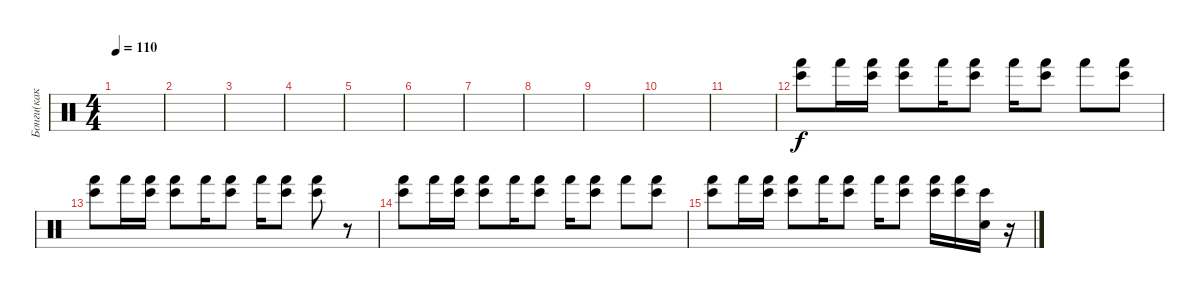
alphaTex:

\track ("Бонги(как вариант)" "Бонги(как ") {instrument percussion}
\staff {score}
\articulation defaults
\ts (4 4)
\tempo 110
\clef neutral
\ks c
|
|
|
|
|
|
|
|
|
|
|
("Bongo High (hit)" "Hand (hit)").8 "Hand (hit)".16 ("Bongo High (hit)" "Hand (hit)").16 ("Bongo High (hit)" "Hand (hit)").8 "Hand (hit)".16 ("Bongo High (hit)" "Hand (hit)").8 "Hand (hit)".16 ("Bongo High (hit)" "Hand (hit)").8 "Hand (hit)".8 ("Bongo High (hit)" "Hand (hit)").8 |
("Bongo High (hit)" "Hand (hit)").8 "Hand (hit)".16 ("Bongo High (hit)" "Hand (hit)").16 ("Bongo High (hit)" "Hand (hit)").8 "Hand (hit)".16 ("Bongo High (hit)" "Hand (hit)").8 "Hand (hit)".16 ("Bongo High (hit)" "Hand (hit)").8 ("Bongo High (hit)" "Hand (hit)").8 r.8 |
("Bongo High (hit)" "Hand (hit)").8 "Hand (hit)".16 ("Bongo High (hit)" "Hand (hit)").16 ("Bongo High (hit)" "Hand (hit)").8 "Hand (hit)".16 ("Bongo High (hit)" "Hand (hit)").8 "Hand (hit)".16 ("Bongo High (hit)" "Hand (hit)").8 "Hand (hit)".8 ("Bongo High (hit)" "Hand (hit)").8 |
("Bongo High (hit)" "Hand (hit)").8 "Hand (hit)".16 ("Bongo High (hit)" "Hand (hit)").16 ("Bongo High (hit)" "Hand (hit)").8 "Hand (hit)".16 ("Bongo High (hit)" "Hand (hit)").8 "Hand (hit)".16 ("Bongo High (hit)" "Hand (hit)").8 ("Bongo High (hit)" "Hand (hit)").16 ("Bongo High (hit)" "Hand (hit)").16 ("Bongo High (hit)" "Snare (hit)").16 r.16
